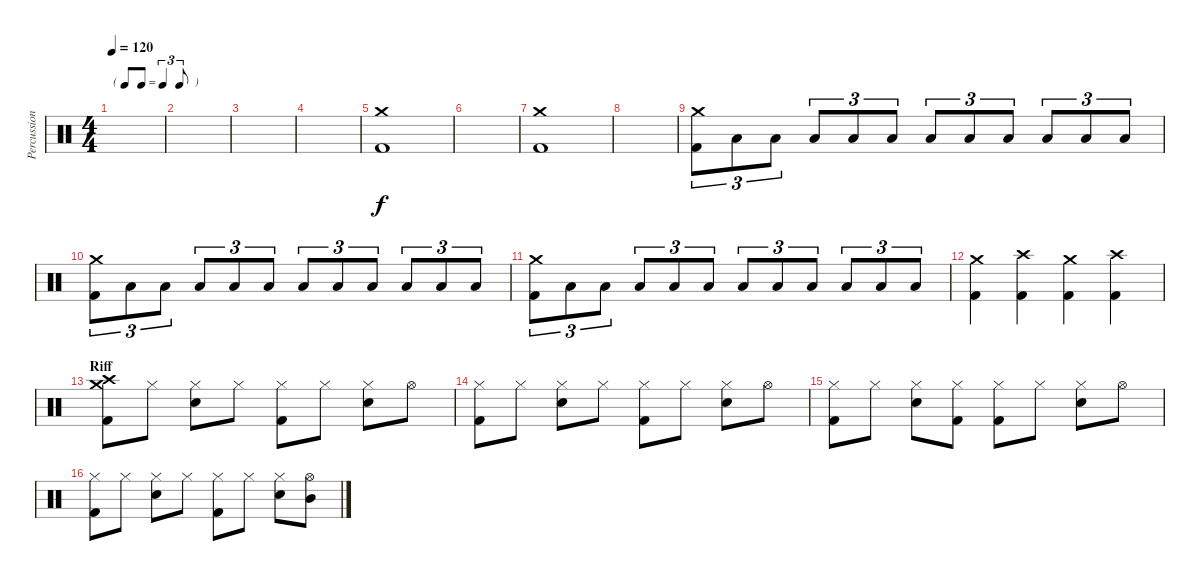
\track ("Percussion" "Percussion") {instrument percussion}
\staff {score}
\articulation defaults
\ts (4 4)
\tf triplet8th
\tempo 120
\clef neutral
\ks c
|
|
|
|
("Crash medium (hit)" "Kick (hit) 2").1 |
|
("Crash medium (hit)" "Kick (hit) 2").1 |
|
("Crash medium (hit)" "Kick (hit) 2").8{tu (3 2)} "Low Floor Tom (hit)".8{tu (3 2)} "Low Floor Tom (hit)".8{tu (3 2)} "Low Floor Tom (hit)".8{tu (3 2)} "Low Floor Tom (hit)".8{tu (3 2)} "Low Floor Tom (hit)".8{tu (3 2)} "Low Floor Tom (hit)".8{tu (3 2)} "Low Floor Tom (hit)".8{tu (3 2)} "Low Floor Tom (hit)".8{tu (3 2)} "Low Floor Tom (hit)".8{tu (3 2)} "Low Floor Tom (hit)".8{tu (3 2)} "Low Floor Tom (hit)".8{tu (3 2)} |
("Crash medium (hit)" "Kick (hit) 2").8{tu (3 2)} "Low Floor Tom (hit)".8{tu (3 2)} "Low Floor Tom (hit)".8{tu (3 2)} "Low Floor Tom (hit)".8{tu (3 2)} "Low Floor Tom (hit)".8{tu (3 2)} "Low Floor Tom (hit)".8{tu (3 2)} "Low Floor Tom (hit)".8{tu (3 2)} "Low Floor Tom (hit)".8{tu (3 2)} "Low Floor Tom (hit)".8{tu (3 2)} "Low Floor Tom (hit)".8{tu (3 2)} "Low Floor Tom (hit)".8{tu (3 2)} "Low Floor Tom (hit)".8{tu (3 2)} |
("Crash medium (hit)" "Kick (hit) 2").8{tu (3 2)} "Low Floor Tom (hit)".8{tu (3 2)} "Low Floor Tom (hit)".8{tu (3 2)} "Low Floor Tom (hit)".8{tu (3 2)} "Low Floor Tom (hit)".8{tu (3 2)} "Low Floor Tom (hit)".8{tu (3 2)} "Low Floor Tom (hit)".8{tu (3 2)} "Low Floor Tom (hit)".8{tu (3 2)} "Low Floor Tom (hit)".8{tu (3 2)} "Low Floor Tom (hit)".8{tu (3 2)} "Low Floor Tom (hit)".8{tu (3 2)} "Low Floor Tom (hit)".8{tu (3 2)} |
("Crash medium (hit)" "Kick (hit) 2").4 ("Crash high (hit)" "Kick (hit) 2").4 ("Crash medium (hit)" "Kick (hit) 2").4 ("Crash high (hit)" "Kick (hit) 2").4 |
\section ("" "Riff")
("Crash medium (hit)" "Crash high (hit)" "Kick (hit) 2").8 "Hi-Hat (closed)".8 ("Hi-Hat (closed)" "Electric Snare (hit)").8 "Hi-Hat (closed)".8 ("Hi-Hat (closed)" "Kick (hit) 2").8 "Hi-Hat (closed)".8 ("Hi-Hat (closed)" "Electric Snare (hit)").8 "Hi-Hat (open)".8 |
("Hi-Hat (closed)" "Kick (hit) 2").8 "Hi-Hat (closed)".8 ("Hi-Hat (closed)" "Electric Snare (hit)").8 "Hi-Hat (closed)".8 ("Hi-Hat (closed)" "Kick (hit) 2").8 "Hi-Hat (closed)".8 ("Hi-Hat (closed)" "Electric Snare (hit)").8 "Hi-Hat (open)".8 |
("Hi-Hat (closed)" "Kick (hit) 2").8 "Hi-Hat (closed)".8 ("Hi-Hat (closed)" "Electric Snare (hit)").8 ("Hi-Hat (closed)" "Kick (hit) 2").8 ("Hi-Hat (closed)" "Kick (hit) 2").8 "Hi-Hat (closed)".8 ("Hi-Hat (closed)" "Electric Snare (hit)").8 "Hi-Hat (open)".8 |
("Hi-Hat (closed)" "Kick (hit) 2").8 "Hi-Hat (closed)".8 ("Hi-Hat (closed)" "Electric Snare (hit)").8 "Hi-Hat (closed)".8 ("Hi-Hat (closed)" "Kick (hit) 2").8 "Hi-Hat (closed)".8 ("Hi-Hat (closed)" "Electric Snare (hit)").8 ("Hi-Hat (open)" "Mid Tom (hit)").8
